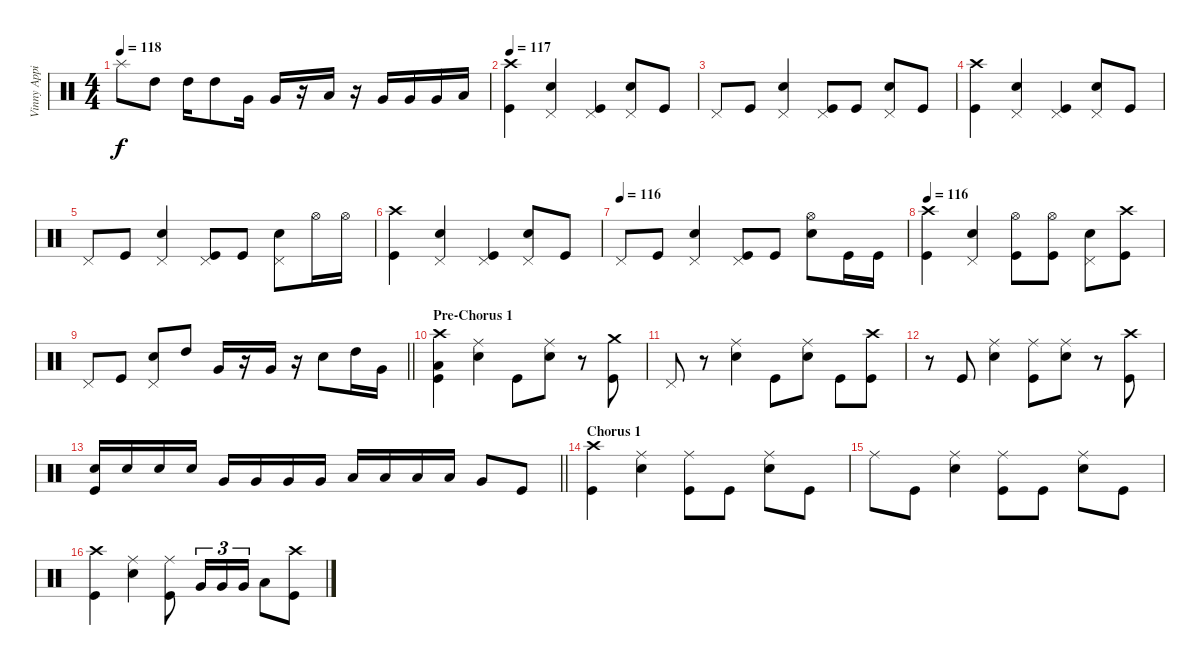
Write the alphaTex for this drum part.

\track ("Vinny Appice" "Vinny Appi") {instrument percussion}
\staff {score}
\articulation defaults
\ts (4 4)
\tempo 118
\clef neutral
\ks c "Splash (hit)".8{dy f} "High Tom (hit)".8 "High Tom (hit)".16 "High Tom (hit)".8 "Very Low Tom (hit)".16 "Very Low Tom (hit)".16
r.16 "Low Tom (hit)".16 r.16 "Very Low Tom (hit)".16 "Very Low Tom (hit)".16 "Very Low Tom (hit)".16 "Low Floor Tom (hit)".16 |
\tempo 117
("Kick (hit)" "Crash high (hit)").4 ("Pedal Hi-Hat (hit)" "Snare (hit) 2").4 ("Pedal Hi-Hat (hit)" "Kick (hit)").4 ("Pedal Hi-Hat (hit)" "Snare (hit) 2").8 "Kick (hit)".8 |
"Pedal Hi-Hat (hit)".8 "Kick (hit)".8 ("Pedal Hi-Hat (hit)" "Snare (hit) 2").4 ("Pedal Hi-Hat (hit)" "Kick (hit)").8 "Kick (hit)".8 ("Pedal Hi-Hat (hit)" "Snare (hit) 2").8 "Kick (hit)".8 |
("Kick (hit)" "Crash high (hit)").4 ("Pedal Hi-Hat (hit)" "Snare (hit) 2").4 ("Pedal Hi-Hat (hit)" "Kick (hit)").4 ("Pedal Hi-Hat (hit)" "Snare (hit) 2").8 "Kick (hit)".8 |
"Pedal Hi-Hat (hit)".8 "Kick (hit)".8 ("Pedal Hi-Hat (hit)" "Snare (hit) 2").4 ("Pedal Hi-Hat (hit)" "Kick (hit)").8 "Kick (hit)".8 ("Pedal Hi-Hat (hit)" "Snare (hit) 2").8 "Hi-Hat (open)".16 "Hi-Hat (open)".16 |
("Kick (hit)" "Crash high (hit)").4 ("Pedal Hi-Hat (hit)" "Snare (hit) 2").4 ("Pedal Hi-Hat (hit)" "Kick (hit)").4 ("Pedal Hi-Hat (hit)" "Snare (hit) 2").8 "Kick (hit)".8 |
\tempo (116)
"Pedal Hi-Hat (hit)".8 "Kick (hit)".8 ("Pedal Hi-Hat (hit)" "Snare (hit) 2").4 ("Pedal Hi-Hat (hit)" "Kick (hit)").8 "Kick (hit)".8 ("Hi-Hat (open)" "Snare (hit) 2").8 "Kick (hit)".16 "Kick (hit)".16 |
\tempo 116
("Kick (hit)" "Crash high (hit)").4 ("Pedal Hi-Hat (hit)" "Snare (hit) 2").4 ("Hi-Hat (open)" "Kick (hit)").8 ("Hi-Hat (open)" "Kick (hit)").8 ("Pedal Hi-Hat (hit)" "Snare (hit) 2").8 ("Kick (hit)" "Crash high (hit)").8 |
\barLineRight lightlight "Pedal Hi-Hat (hit)".8 "Kick (hit)".8
("Pedal Hi-Hat (hit)" "Snare (hit) 2").8 "High Tom (hit)".8 "Very Low Tom (hit)".16 r.16 "Very Low Tom (hit)".16 r.16 "Snare (hit) 2".8 "High Tom (hit)".16 "Very Low Tom (hit)".16 |
\section ("" "Pre-Chorus 1")
("Low Floor Tom (hit)" "Kick (hit)" "Crash high (hit)").4 ("Ride (middle)" "Snare (hit) 2").4 "Kick (hit)".8 ("Ride (middle)" "Snare (hit) 2").8 r.8 ("Crash medium (hit)" "Kick (hit)").8 |
"Pedal Hi-Hat (hit)".8 r.8 ("Ride (middle)" "Snare (hit) 2").4 "Kick (hit)".8 ("Ride (middle)" "Snare (hit) 2").8 "Kick (hit)".8 ("Crash high (hit)" "Kick (hit)").8 |
r.8 "Kick (hit)".8 ("Ride (middle)" "Snare (hit) 2").4 ("Ride (middle)" "Kick (hit)").8 ("Ride (middle)" "Snare (hit) 2").8 r.8 ("Kick (hit)" "Crash high (hit)").8 |
\barLineRight lightlight
("Kick (hit)" "Snare (hit) 2").16 "Snare (hit) 2".16 "Snare (hit) 2".16 "Snare (hit) 2".16 "Very Low Tom (hit)".16 "Very Low Tom (hit)".16 "Very Low Tom (hit)".16 "Very Low Tom (hit)".16 "Low Tom (hit)".16 "Low Tom (hit)".16 "Low Tom (hit)".16 "Low Tom (hit)".16 "Very Low Tom (hit)".8 "Kick (hit)".8 |
\section ("" "Chorus 1")
("Kick (hit)" "Crash high (hit)").4 ("Ride (middle)" "Snare (hit) 2").4 ("Ride (middle)" "Kick (hit)").8 "Kick (hit)".8 ("Ride (middle)" "Snare (hit) 2").8 "Kick (hit)".8 |
"Ride (middle)".8 "Kick (hit)".8 ("Ride (middle)" "Snare (hit) 2").4 ("Ride (middle)" "Kick (hit)").8 "Kick (hit)".8 ("Ride (middle)" "Snare (hit) 2").8 "Kick (hit)".8 |
("Kick (hit)" "Crash high (hit)").4 ("Ride (middle)" "Snare (hit) 2").4 ("Ride (middle)" "Kick (hit)").8 "Very Low Tom (hit)".16{tu (3 2)} "Very Low Tom (hit)".16{tu (3 2)} "Very Low Tom (hit)".16{tu (3 2)} "Low Floor Tom (hit)".8 ("Kick (hit)" "Crash high (hit)").8
